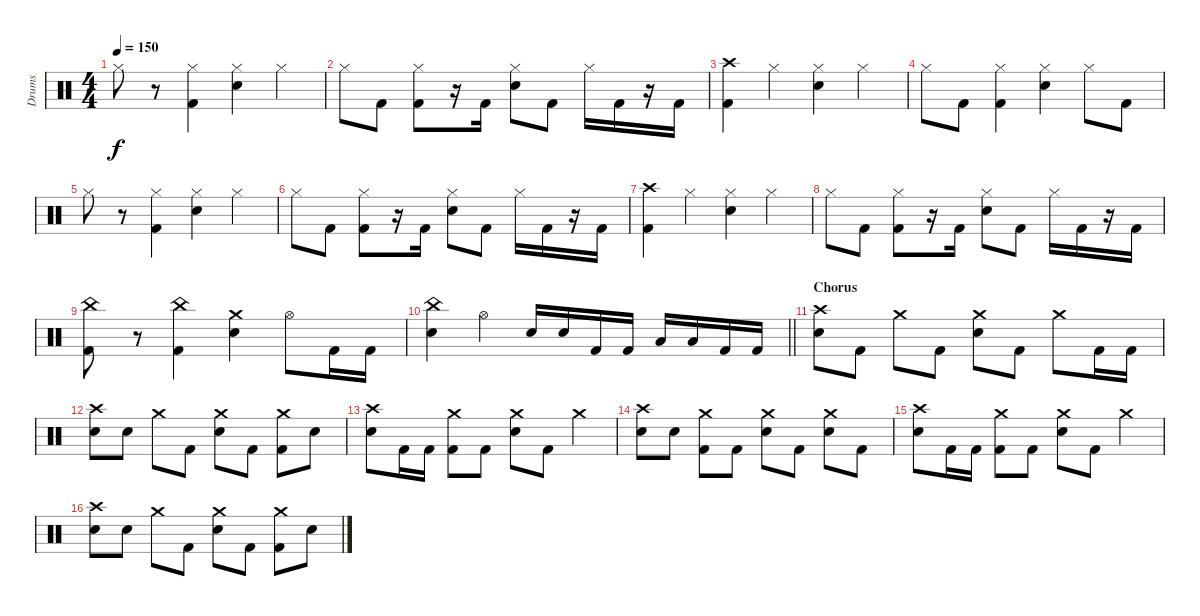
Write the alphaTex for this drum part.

\track ("Drums" "Drums") {instrument percussion}
\staff {score}
\articulation defaults
\ts (4 4)
\tempo 150
\clef neutral
\ks c "Hi-Hat (closed)".8{dy f}
r.8 ("Hi-Hat (closed)" "Kick (hit) 2").4 ("Hi-Hat (closed)" "Snare (hit) 2").4 "Hi-Hat (closed)".4 |
"Hi-Hat (closed)".8 "Kick (hit) 2".8 ("Hi-Hat (closed)" "Kick (hit) 2").8 r.16 "Kick (hit) 2".16 ("Hi-Hat (closed)" "Snare (hit) 2").8 "Kick (hit) 2".8 "Hi-Hat (closed)".16 "Kick (hit) 2".16 r.16 "Kick (hit) 2".16 |
("Crash high (hit)" "Kick (hit) 2").4 "Hi-Hat (closed)".4 ("Hi-Hat (closed)" "Snare (hit) 2").4 "Hi-Hat (closed)".4 |
"Hi-Hat (closed)".8 "Kick (hit) 2".8 ("Hi-Hat (closed)" "Kick (hit) 2").4 ("Hi-Hat (closed)" "Snare (hit) 2").4 "Hi-Hat (closed)".8 "Kick (hit) 2".8 |
"Hi-Hat (closed)".8 r.8 ("Hi-Hat (closed)" "Kick (hit) 2").4 ("Hi-Hat (closed)" "Snare (hit) 2").4 "Hi-Hat (closed)".4 |
"Hi-Hat (closed)".8 "Kick (hit) 2".8 ("Hi-Hat (closed)" "Kick (hit) 2").8 r.16 "Kick (hit) 2".16 ("Hi-Hat (closed)" "Snare (hit) 2").8 "Kick (hit) 2".8 "Hi-Hat (closed)".16 "Kick (hit) 2".16 r.16 "Kick (hit) 2".16 |
("Crash high (hit)" "Kick (hit) 2").4 "Hi-Hat (closed)".4 ("Hi-Hat (closed)" "Snare (hit) 2").4 "Hi-Hat (closed)".4 |
"Hi-Hat (closed)".8 "Kick (hit) 2".8 ("Hi-Hat (closed)" "Kick (hit) 2").8 r.16 "Kick (hit) 2".16 ("Hi-Hat (closed)" "Snare (hit) 2").8 "Kick (hit) 2".8 "Hi-Hat (closed)".16 "Kick (hit) 2".16 r.16 "Kick (hit) 2".16 |
("China (hit)" "Kick (hit) 2").8 r.8 ("China (hit)" "Kick (hit) 2").4 ("Crash medium (hit)" "Snare (hit) 2").4 "Hi-Hat (open)".8 "Kick (hit) 2".16 "Kick (hit) 2".16 |
\barLineRight lightlight
("China (hit)" "Snare (hit) 2").4 "Hi-Hat (open)".4 "Snare (hit) 2".16 "Snare (hit) 2".16 "Kick (hit) 2".16 "Kick (hit) 2".16 "Low Tom (hit)".16 "Low Tom (hit)".16 "Kick (hit) 2".16 "Kick (hit) 2".16 |
\section ("" "Chorus")
("Crash high (hit)" "Snare (hit) 2").8 "Kick (hit) 2".8 "Crash medium (hit)".8 "Kick (hit) 2".8 ("Crash medium (hit)" "Snare (hit) 2").8 "Kick (hit) 2".8 "Crash medium (hit)".8 "Kick (hit) 2".16 "Kick (hit) 2".16 |
("Crash high (hit)" "Snare (hit) 2").8 "Snare (hit) 2".8 "Crash medium (hit)".8 "Kick (hit) 2".8 ("Crash medium (hit)" "Snare (hit) 2").8 "Kick (hit) 2".8 ("Crash medium (hit)" "Kick (hit) 2").8 "Snare (hit) 2".8 |
("Crash high (hit)" "Snare (hit) 2").8 "Kick (hit) 2".16 "Kick (hit) 2".16 ("Crash medium (hit)" "Kick (hit) 2").8 "Kick (hit) 2".8 ("Crash medium (hit)" "Snare (hit) 2").8 "Kick (hit) 2".8 "Crash medium (hit)".4 |
("Crash high (hit)" "Snare (hit) 2").8 "Snare (hit) 2".8 ("Crash medium (hit)" "Kick (hit) 2").8 "Kick (hit) 2".8 ("Crash medium (hit)" "Snare (hit) 2").8 "Kick (hit) 2".8 ("Crash medium (hit)" "Snare (hit) 2").8 "Kick (hit) 2".8 |
("Crash high (hit)" "Snare (hit) 2").8 "Kick (hit) 2".16 "Kick (hit) 2".16 ("Crash medium (hit)" "Kick (hit) 2").8 "Kick (hit) 2".8 ("Crash medium (hit)" "Snare (hit) 2").8 "Kick (hit) 2".8 "Crash medium (hit)".4 |
("Crash high (hit)" "Snare (hit) 2").8 "Snare (hit) 2".8 "Crash medium (hit)".8 "Kick (hit) 2".8 ("Crash medium (hit)" "Snare (hit) 2").8 "Kick (hit) 2".8 ("Crash medium (hit)" "Kick (hit) 2").8 "Snare (hit) 2".8
